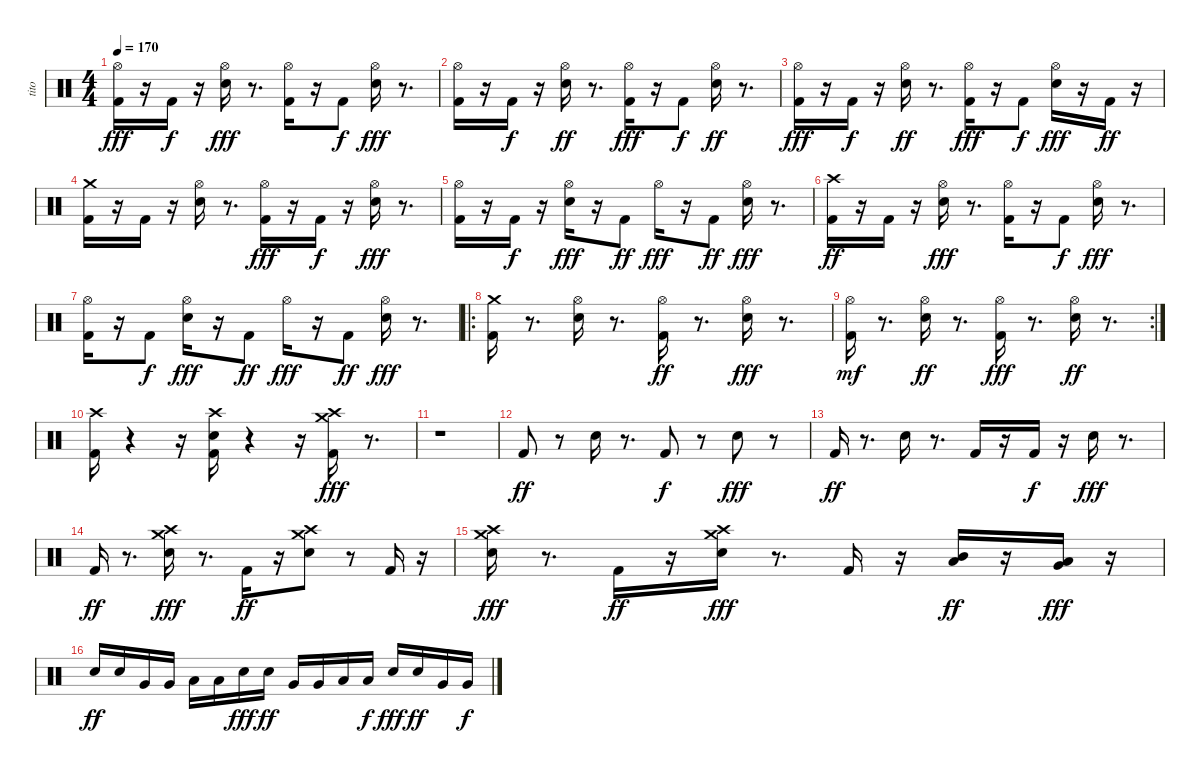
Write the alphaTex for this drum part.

\track ("tito" "tito") {instrument percussion}
\staff {score}
\articulation defaults
\ts (4 4)
\tempo 170
\clef neutral
\ks c
("Hi-Hat (open)" "Kick (hit) 2").16{dy fff} r.16 "Kick (hit) 2".16{dy f} r.16 ("Snare (hit) 2" "Hi-Hat (open)").16{dy fff} r.8{d} ("Kick (hit) 2" "Hi-Hat (open)").16 r.16 "Kick (hit) 2".8{dy f} ("Snare (hit) 2" "Hi-Hat (open)").16{dy fff} r.8{d} |
("Kick (hit) 2" "Hi-Hat (open)").16 r.16 "Kick (hit) 2".16{dy f} r.16 ("Hi-Hat (open)" "Snare (hit) 2").16{dy ff} r.8{d} ("Kick (hit) 2" "Hi-Hat (open)").16{dy fff} r.16 "Kick (hit) 2".8{dy f} ("Hi-Hat (open)" "Snare (hit) 2").16{dy ff} r.8{d} |
("Kick (hit) 2" "Hi-Hat (open)").16{dy fff} r.16 "Kick (hit) 2".16{dy f} r.16 ("Hi-Hat (open)" "Snare (hit) 2").16{dy ff} r.8{d} ("Kick (hit) 2" "Hi-Hat (open)").16{dy fff} r.16 "Kick (hit) 2".8{dy f} ("Snare (hit) 2" "Hi-Hat (open)").16{dy fff} r.16 "Kick (hit) 2".16{dy ff} r.16 |
("Crash medium (hit)" "Kick (hit) 2").16 r.16 "Kick (hit) 2".16 r.16 ("Snare (hit) 2" "Hi-Hat (open)").16 r.8{d} ("Kick (hit) 2" "Hi-Hat (open)").16{dy fff} r.16 "Kick (hit) 2".16{dy f} r.16 ("Snare (hit) 2" "Hi-Hat (open)").16{dy fff} r.8{d} |
("Kick (hit) 2" "Hi-Hat (open)").16 r.16 "Kick (hit) 2".16{dy f} r.16 ("Snare (hit) 2" "Hi-Hat (open)").16{dy fff} r.16 "Kick (hit) 2".8{dy ff} "Hi-Hat (open)".16{dy fff} r.16 "Kick (hit) 2".8{dy ff} ("Snare (hit) 2" "Hi-Hat (open)").16{dy fff} r.8{d} |
("Crash high (hit)" "Kick (hit) 2").16{dy ff} r.16 "Kick (hit) 2".16 r.16 ("Hi-Hat (open)" "Snare (hit) 2").16{dy fff} r.8{d} ("Kick (hit) 2" "Hi-Hat (open)").16 r.16 "Kick (hit) 2".8{dy f} ("Snare (hit) 2" "Hi-Hat (open)").16{dy fff} r.8{d} |
("Kick (hit) 2" "Hi-Hat (open)").16 r.16 "Kick (hit) 2".8{dy f} ("Snare (hit) 2" "Hi-Hat (open)").16{dy fff} r.16 "Kick (hit) 2".8{dy ff} "Hi-Hat (open)".16{dy fff} r.16 "Kick (hit) 2".8{dy ff} ("Snare (hit) 2" "Hi-Hat (open)").16{dy fff} r.8{d} |
\ro
("Crash medium (hit)" "Kick (hit) 2").16 r.8{d} ("Snare (hit) 2" "Hi-Hat (open)").16 r.8{d} ("Hi-Hat (open)" "Kick (hit) 2").16{dy ff} r.8{d} ("Hi-Hat (open)" "Snare (hit) 2").16{dy fff} r.8{d} |
\rc 2
("Hi-Hat (open)" "Kick (hit) 2").16{dy mf} r.8{d} ("Hi-Hat (open)" "Snare (hit) 2").16{dy ff} r.8{d} ("Kick (hit) 2" "Hi-Hat (open)").16{dy fff} r.8{d} ("Hi-Hat (open)" "Snare (hit) 2").16{dy ff} r.8{d} |
("Crash high (hit)" "Kick (hit) 2").16 r.4 r.16 ("Crash high (hit)" "Kick (hit) 2" "Snare (hit) 2").16 r.4 r.16 ("Crash medium (hit)" "Kick (hit) 2" "Crash high (hit)").16{dy fff} r.8{d} |
r.1 |
"Kick (hit) 2".8{dy ff} r.8 "Snare (hit) 2".16 r.8{d} "Kick (hit) 2".8{dy f} r.8 "Snare (hit) 2".8{dy fff} r.8 |
"Kick (hit) 2".16{dy ff} r.8{d} "Snare (hit) 2".16 r.8{d} "Kick (hit) 2".16 r.16 "Kick (hit) 2".16{dy f} r.16 "Snare (hit) 2".16{dy fff} r.8{d} |
"Kick (hit) 2".16{dy ff} r.8{d} ("Snare (hit) 2" "Crash high (hit)" "Crash medium (hit)").16{dy fff} r.8{d} "Kick (hit) 2".16{dy ff} r.16 ("Snare (hit) 2" "Crash high (hit)" "Crash medium (hit)").8 r.8 "Kick (hit) 2".16 r.16 |
("Snare (hit) 2" "Crash high (hit)" "Crash medium (hit)").16{dy fff} r.8{d} "Kick (hit) 2".16{dy ff} r.16 ("Snare (hit) 2" "Crash medium (hit)" "Crash high (hit)").16{dy fff} r.8{d} "Kick (hit) 2".16 r.16 ("Mid Tom (hit)" "Low Tom (hit)").16{dy ff} r.16 ("Very Low Tom (hit)" "Low Tom (hit)").16{dy fff} r.16 |
"Snare (hit) 2".16{dy ff} "Snare (hit) 2".16 "Very Low Tom (hit)".16 "Very Low Tom (hit)".16 "Low Floor Tom (hit)".16 "Low Floor Tom (hit)".16 "Snare (hit) 2".16{dy fff} "Snare (hit) 2".16{dy ff} "Very Low Tom (hit)".16 "Very Low Tom (hit)".16 "Low Floor Tom (hit)".16 "Low Floor Tom (hit)".16{dy f} "Snare (hit) 2".16{dy fff} "Snare (hit) 2".16{dy ff} "Very Low Tom (hit)".16 "Very Low Tom (hit)".16{dy f}
